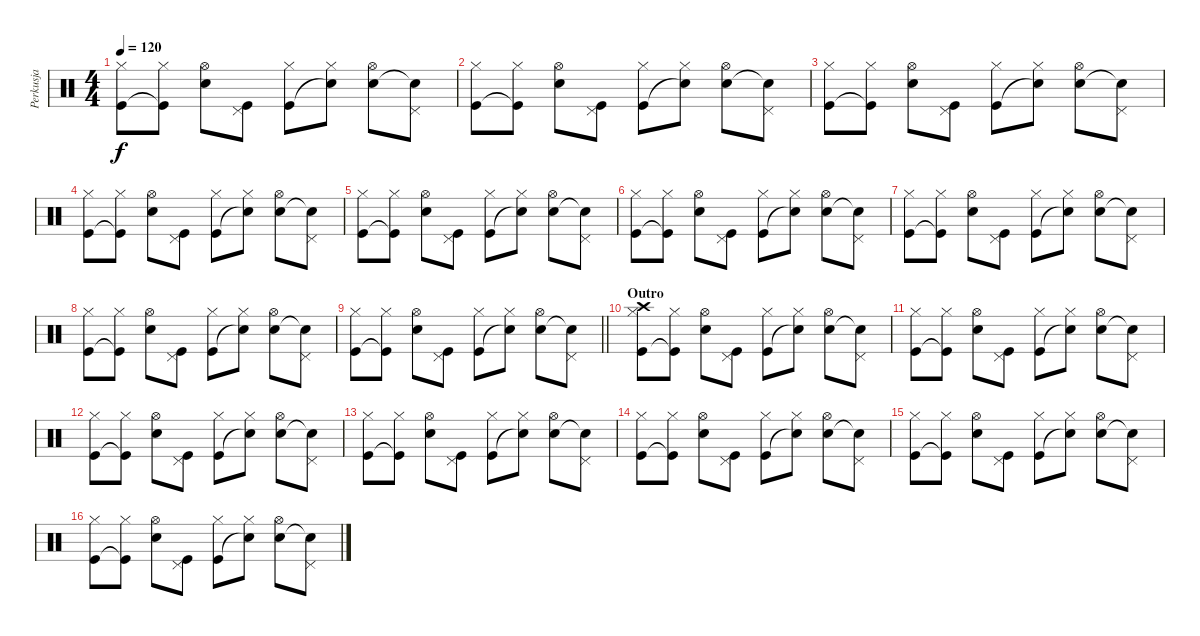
\track ("Perkusja" "Perkusja") {instrument percussion}
\staff {score}
\articulation defaults
\ts (4 4)
\tempo 120
\clef neutral
\ks c
("Kick (hit)" "Hi-Hat (closed)").8{dy f} ("Kick (hit)"{t} "Hi-Hat (closed)").8 ("Snare (hit) 2" "Hi-Hat (open)").8 ("Kick (hit)" "Pedal Hi-Hat (hit)").8 ("Kick (hit)" "Hi-Hat (closed)").8 ("Snare (hit)"{t} "Hi-Hat (closed)").8 ("Snare (hit) 2" "Hi-Hat (open)").8 ("Snare (hit)"{t} "Pedal Hi-Hat (hit)").8 |
("Kick (hit)" "Hi-Hat (closed)").8 ("Kick (hit)"{t} "Hi-Hat (closed)").8 ("Snare (hit) 2" "Hi-Hat (open)").8 ("Kick (hit)" "Pedal Hi-Hat (hit)").8 ("Kick (hit)" "Hi-Hat (closed)").8 ("Snare (hit)"{t} "Hi-Hat (closed)").8 ("Snare (hit) 2" "Hi-Hat (open)").8 ("Snare (hit)"{t} "Pedal Hi-Hat (hit)").8 |
("Kick (hit)" "Hi-Hat (closed)").8 ("Kick (hit)"{t} "Hi-Hat (closed)").8 ("Snare (hit) 2" "Hi-Hat (open)").8 ("Kick (hit)" "Pedal Hi-Hat (hit)").8 ("Kick (hit)" "Hi-Hat (closed)").8 ("Snare (hit)"{t} "Hi-Hat (closed)").8 ("Snare (hit) 2" "Hi-Hat (open)").8 ("Snare (hit)"{t} "Pedal Hi-Hat (hit)").8 |
("Kick (hit)" "Hi-Hat (closed)").8 ("Kick (hit)"{t} "Hi-Hat (closed)").8 ("Snare (hit) 2" "Hi-Hat (open)").8 ("Kick (hit)" "Pedal Hi-Hat (hit)").8 ("Kick (hit)" "Hi-Hat (closed)").8 ("Snare (hit)"{t} "Hi-Hat (closed)").8 ("Snare (hit) 2" "Hi-Hat (open)").8 ("Snare (hit)"{t} "Pedal Hi-Hat (hit)").8 |
("Kick (hit)" "Hi-Hat (closed)").8 ("Kick (hit)"{t} "Hi-Hat (closed)").8 ("Snare (hit) 2" "Hi-Hat (open)").8 ("Kick (hit)" "Pedal Hi-Hat (hit)").8 ("Kick (hit)" "Hi-Hat (closed)").8 ("Snare (hit)"{t} "Hi-Hat (closed)").8 ("Snare (hit) 2" "Hi-Hat (open)").8 ("Snare (hit)"{t} "Pedal Hi-Hat (hit)").8 |
("Kick (hit)" "Hi-Hat (closed)").8 ("Kick (hit)"{t} "Hi-Hat (closed)").8 ("Snare (hit) 2" "Hi-Hat (open)").8 ("Kick (hit)" "Pedal Hi-Hat (hit)").8 ("Kick (hit)" "Hi-Hat (closed)").8 ("Snare (hit)"{t} "Hi-Hat (closed)").8 ("Snare (hit) 2" "Hi-Hat (open)").8 ("Snare (hit)"{t} "Pedal Hi-Hat (hit)").8 |
("Kick (hit)" "Hi-Hat (closed)").8 ("Kick (hit)"{t} "Hi-Hat (closed)").8 ("Snare (hit) 2" "Hi-Hat (open)").8 ("Kick (hit)" "Pedal Hi-Hat (hit)").8 ("Kick (hit)" "Hi-Hat (closed)").8 ("Snare (hit)"{t} "Hi-Hat (closed)").8 ("Snare (hit) 2" "Hi-Hat (open)").8 ("Snare (hit)"{t} "Pedal Hi-Hat (hit)").8 |
("Kick (hit)" "Hi-Hat (closed)").8 ("Kick (hit)"{t} "Hi-Hat (closed)").8 ("Snare (hit) 2" "Hi-Hat (open)").8 ("Kick (hit)" "Pedal Hi-Hat (hit)").8 ("Kick (hit)" "Hi-Hat (closed)").8 ("Snare (hit)"{t} "Hi-Hat (closed)").8 ("Snare (hit) 2" "Hi-Hat (open)").8 ("Snare (hit)"{t} "Pedal Hi-Hat (hit)").8 |
\barLineRight lightlight
("Kick (hit)" "Hi-Hat (closed)").8 ("Kick (hit)"{t} "Hi-Hat (closed)").8 ("Snare (hit) 2" "Hi-Hat (open)").8 ("Kick (hit)" "Pedal Hi-Hat (hit)").8 ("Kick (hit)" "Hi-Hat (closed)").8 ("Snare (hit)"{t} "Hi-Hat (closed)").8 ("Snare (hit) 2" "Hi-Hat (open)").8 ("Snare (hit)"{t} "Pedal Hi-Hat (hit)").8 |
\section ("" "Outro")
("Kick (hit)" "Hi-Hat (closed)" "Crash high (hit)").8 ("Kick (hit)"{t} "Hi-Hat (closed)").8 ("Snare (hit) 2" "Hi-Hat (open)").8 ("Kick (hit)" "Pedal Hi-Hat (hit)").8 ("Kick (hit)" "Hi-Hat (closed)").8 ("Snare (hit)"{t} "Hi-Hat (closed)").8 ("Snare (hit) 2" "Hi-Hat (open)").8 ("Snare (hit)"{t} "Pedal Hi-Hat (hit)").8 |
("Kick (hit)" "Hi-Hat (closed)").8 ("Kick (hit)"{t} "Hi-Hat (closed)").8 ("Snare (hit) 2" "Hi-Hat (open)").8 ("Kick (hit)" "Pedal Hi-Hat (hit)").8 ("Kick (hit)" "Hi-Hat (closed)").8 ("Snare (hit)"{t} "Hi-Hat (closed)").8 ("Snare (hit) 2" "Hi-Hat (open)").8 ("Snare (hit)"{t} "Pedal Hi-Hat (hit)").8 |
("Kick (hit)" "Hi-Hat (closed)").8 ("Kick (hit)"{t} "Hi-Hat (closed)").8 ("Snare (hit) 2" "Hi-Hat (open)").8 ("Kick (hit)" "Pedal Hi-Hat (hit)").8 ("Kick (hit)" "Hi-Hat (closed)").8 ("Snare (hit)"{t} "Hi-Hat (closed)").8 ("Snare (hit) 2" "Hi-Hat (open)").8 ("Snare (hit)"{t} "Pedal Hi-Hat (hit)").8 |
("Kick (hit)" "Hi-Hat (closed)").8 ("Kick (hit)"{t} "Hi-Hat (closed)").8 ("Snare (hit) 2" "Hi-Hat (open)").8 ("Kick (hit)" "Pedal Hi-Hat (hit)").8 ("Kick (hit)" "Hi-Hat (closed)").8 ("Snare (hit)"{t} "Hi-Hat (closed)").8 ("Snare (hit) 2" "Hi-Hat (open)").8 ("Snare (hit)"{t} "Pedal Hi-Hat (hit)").8 |
("Kick (hit)" "Hi-Hat (closed)").8 ("Kick (hit)"{t} "Hi-Hat (closed)").8 ("Snare (hit) 2" "Hi-Hat (open)").8 ("Kick (hit)" "Pedal Hi-Hat (hit)").8 ("Kick (hit)" "Hi-Hat (closed)").8 ("Snare (hit)"{t} "Hi-Hat (closed)").8 ("Snare (hit) 2" "Hi-Hat (open)").8 ("Snare (hit)"{t} "Pedal Hi-Hat (hit)").8 |
("Kick (hit)" "Hi-Hat (closed)").8 ("Kick (hit)"{t} "Hi-Hat (closed)").8 ("Snare (hit) 2" "Hi-Hat (open)").8 ("Kick (hit)" "Pedal Hi-Hat (hit)").8 ("Kick (hit)" "Hi-Hat (closed)").8 ("Snare (hit)"{t} "Hi-Hat (closed)").8 ("Snare (hit) 2" "Hi-Hat (open)").8 ("Snare (hit)"{t} "Pedal Hi-Hat (hit)").8 |
("Kick (hit)" "Hi-Hat (closed)").8 ("Kick (hit)"{t} "Hi-Hat (closed)").8 ("Snare (hit) 2" "Hi-Hat (open)").8 ("Kick (hit)" "Pedal Hi-Hat (hit)").8 ("Kick (hit)" "Hi-Hat (closed)").8 ("Snare (hit)"{t} "Hi-Hat (closed)").8 ("Snare (hit) 2" "Hi-Hat (open)").8 ("Snare (hit)"{t} "Pedal Hi-Hat (hit)").8
